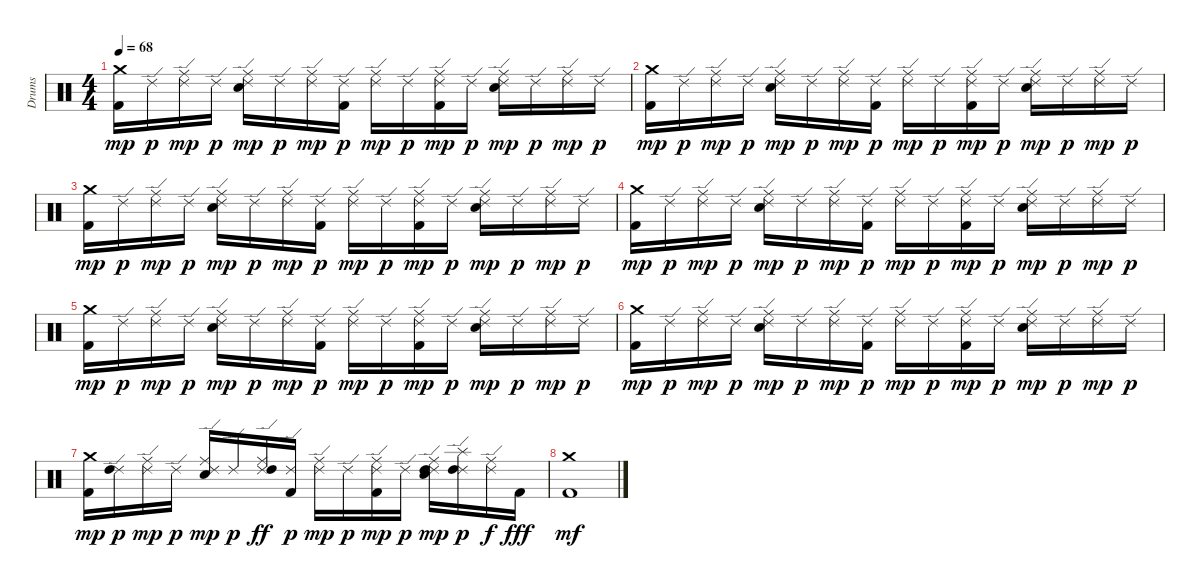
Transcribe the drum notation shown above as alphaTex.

\track ("Drums" "Drums") {instrument percussion}
\staff {score}
\articulation defaults
\ts (4 4)
\tempo 68
\clef neutral
\ks c
("Kick (hit) 2" "Crash medium (hit)").16{dy mp} "Ride (edge) 2".16{dy p} ("Ride (middle)" "Ride (edge) 2").16{dy mp} "Ride (edge) 2".16{dy p} ("Ride (middle)" "Ride (edge) 2" "Snare (hit) 2").16{dy mp} "Ride (edge) 2".16{dy p} ("Ride (middle)" "Ride (edge) 2").16{dy mp} ("Ride (edge) 2" "Kick (hit) 2").16{dy p} ("Ride (middle)" "Ride (edge) 2").16{dy mp} "Ride (edge) 2".16{dy p} ("Ride (middle)" "Ride (edge) 2" "Kick (hit) 2").16{dy mp} "Ride (edge) 2".16{dy p} ("Ride (middle)" "Ride (edge) 2" "Snare (hit) 2").16{dy mp} "Ride (edge) 2".16{dy p} ("Ride (middle)" "Ride (edge) 2").16{dy mp} "Ride (edge) 2".16{dy p} |
("Kick (hit) 2" "Crash medium (hit)").16{dy mp} "Ride (edge) 2".16{dy p} ("Ride (middle)" "Ride (edge) 2").16{dy mp} "Ride (edge) 2".16{dy p} ("Ride (middle)" "Ride (edge) 2" "Snare (hit) 2").16{dy mp} "Ride (edge) 2".16{dy p} ("Ride (middle)" "Ride (edge) 2").16{dy mp} ("Ride (edge) 2" "Kick (hit) 2").16{dy p} ("Ride (middle)" "Ride (edge) 2").16{dy mp} "Ride (edge) 2".16{dy p} ("Ride (middle)" "Ride (edge) 2" "Kick (hit) 2").16{dy mp} "Ride (edge) 2".16{dy p} ("Ride (middle)" "Ride (edge) 2" "Snare (hit) 2").16{dy mp} "Ride (edge) 2".16{dy p} ("Ride (middle)" "Ride (edge) 2").16{dy mp} "Ride (edge) 2".16{dy p} |
("Kick (hit) 2" "Crash medium (hit)").16{dy mp} "Ride (edge) 2".16{dy p} ("Ride (middle)" "Ride (edge) 2").16{dy mp} "Ride (edge) 2".16{dy p} ("Ride (middle)" "Ride (edge) 2" "Snare (hit) 2").16{dy mp} "Ride (edge) 2".16{dy p} ("Ride (middle)" "Ride (edge) 2").16{dy mp} ("Ride (edge) 2" "Kick (hit) 2").16{dy p} ("Ride (middle)" "Ride (edge) 2").16{dy mp} "Ride (edge) 2".16{dy p} ("Ride (middle)" "Ride (edge) 2" "Kick (hit) 2").16{dy mp} "Ride (edge) 2".16{dy p} ("Ride (middle)" "Ride (edge) 2" "Snare (hit) 2").16{dy mp} "Ride (edge) 2".16{dy p} ("Ride (middle)" "Ride (edge) 2").16{dy mp} "Ride (edge) 2".16{dy p} |
("Kick (hit) 2" "Crash medium (hit)").16{dy mp} "Ride (edge) 2".16{dy p} ("Ride (middle)" "Ride (edge) 2").16{dy mp} "Ride (edge) 2".16{dy p} ("Ride (middle)" "Ride (edge) 2" "Snare (hit) 2").16{dy mp} "Ride (edge) 2".16{dy p} ("Ride (middle)" "Ride (edge) 2").16{dy mp} ("Ride (edge) 2" "Kick (hit) 2").16{dy p} ("Ride (middle)" "Ride (edge) 2").16{dy mp} "Ride (edge) 2".16{dy p} ("Ride (middle)" "Ride (edge) 2" "Kick (hit) 2").16{dy mp} "Ride (edge) 2".16{dy p} ("Ride (middle)" "Ride (edge) 2" "Snare (hit) 2").16{dy mp} "Ride (edge) 2".16{dy p} ("Ride (middle)" "Ride (edge) 2").16{dy mp} "Ride (edge) 2".16{dy p} |
("Kick (hit) 2" "Crash medium (hit)").16{dy mp} "Ride (edge) 2".16{dy p} ("Ride (middle)" "Ride (edge) 2").16{dy mp} "Ride (edge) 2".16{dy p} ("Ride (middle)" "Ride (edge) 2" "Snare (hit) 2").16{dy mp} "Ride (edge) 2".16{dy p} ("Ride (middle)" "Ride (edge) 2").16{dy mp} ("Ride (edge) 2" "Kick (hit) 2").16{dy p} ("Ride (middle)" "Ride (edge) 2").16{dy mp} "Ride (edge) 2".16{dy p} ("Ride (middle)" "Ride (edge) 2" "Kick (hit) 2").16{dy mp} "Ride (edge) 2".16{dy p} ("Ride (middle)" "Ride (edge) 2" "Snare (hit) 2").16{dy mp} "Ride (edge) 2".16{dy p} ("Ride (middle)" "Ride (edge) 2").16{dy mp} "Ride (edge) 2".16{dy p} |
("Kick (hit) 2" "Crash medium (hit)").16{dy mp} "Ride (edge) 2".16{dy p} ("Ride (middle)" "Ride (edge) 2").16{dy mp} "Ride (edge) 2".16{dy p} ("Ride (middle)" "Ride (edge) 2" "Snare (hit) 2").16{dy mp} "Ride (edge) 2".16{dy p} ("Ride (middle)" "Ride (edge) 2").16{dy mp} ("Ride (edge) 2" "Kick (hit) 2").16{dy p} ("Ride (middle)" "Ride (edge) 2").16{dy mp} "Ride (edge) 2".16{dy p} ("Ride (middle)" "Ride (edge) 2" "Kick (hit) 2").16{dy mp} "Ride (edge) 2".16{dy p} ("Ride (middle)" "Ride (edge) 2" "Snare (hit) 2").16{dy mp} "Ride (edge) 2".16{dy p} ("Ride (middle)" "Ride (edge) 2").16{dy mp} "Ride (edge) 2".16{dy p} |
("Kick (hit) 2" "Crash medium (hit)").16{dy mp} ("Ride (edge) 2" "High Tom (hit)").16{dy p} ("Ride (middle)" "Ride (edge) 2").16{dy mp} "Ride (edge) 2".16{dy p} ("Ride (middle)" "Ride (edge) 2" "Snare (hit) 2").16{dy mp} "Ride (edge) 2".16{dy p} ("Ride (middle)" "Ride (edge) 2" "High Tom (hit)").16{dy ff} ("Ride (edge) 2" "Kick (hit) 2").16{dy p} ("Ride (middle)" "Ride (edge) 2").16{dy mp} "Ride (edge) 2".16{dy p} ("Ride (middle)" "Ride (edge) 2" "Kick (hit) 2").16{dy mp} "Ride (edge) 2".16{dy p} ("Ride (middle)" "Ride (edge) 2" "Snare (hit) 2" "High Tom (hit)").16{dy mp} ("Ride (edge) 2" "Splash (hit)" "High Tom (hit)").16{dy p} ("Ride (middle)" "Ride (edge) 2").16{dy f} "Kick (hit) 2".16{dy fff} |
("Kick (hit) 2" "Crash medium (hit)").1{dy mf}
